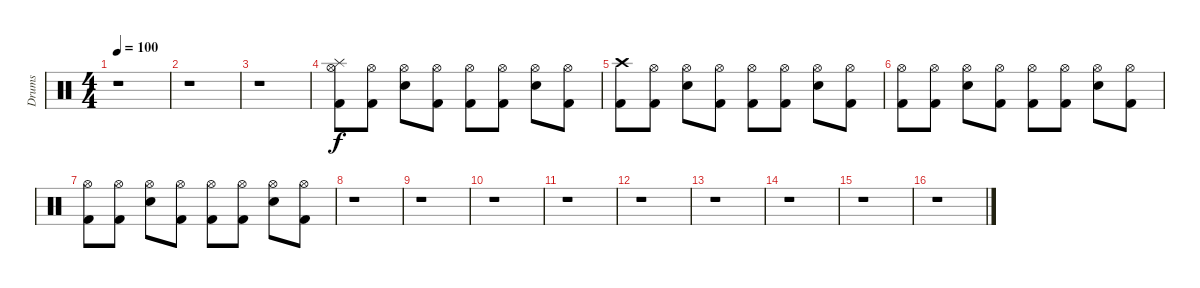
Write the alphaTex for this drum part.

\track ("Drums" "Drums") {instrument percussion}
\staff {score}
\articulation defaults
\ts (4 4)
\tempo 100
\clef neutral
\ks c
r.1{dy f} |
r.1 |
r.1 |
("Kick (hit) 2" "Splash (hit)" "Hi-Hat (open)").8 ("Kick (hit) 2" "Hi-Hat (open)").8 ("Electric Snare (hit)" "Hi-Hat (open)").8 ("Kick (hit) 2" "Hi-Hat (open)").8 ("Kick (hit) 2" "Hi-Hat (open)").8 ("Kick (hit) 2" "Hi-Hat (open)").8 ("Electric Snare (hit)" "Hi-Hat (open)").8 ("Kick (hit) 2" "Hi-Hat (open)").8 |
("Kick (hit) 2" "Crash high (hit)").8 ("Kick (hit) 2" "Hi-Hat (open)").8 ("Electric Snare (hit)" "Hi-Hat (open)").8 ("Kick (hit) 2" "Hi-Hat (open)").8 ("Kick (hit) 2" "Hi-Hat (open)").8 ("Kick (hit) 2" "Hi-Hat (open)").8 ("Electric Snare (hit)" "Hi-Hat (open)").8 ("Kick (hit) 2" "Hi-Hat (open)").8 |
("Kick (hit) 2" "Hi-Hat (open)").8 ("Kick (hit) 2" "Hi-Hat (open)").8 ("Electric Snare (hit)" "Hi-Hat (open)").8 ("Kick (hit) 2" "Hi-Hat (open)").8 ("Kick (hit) 2" "Hi-Hat (open)").8 ("Kick (hit) 2" "Hi-Hat (open)").8 ("Electric Snare (hit)" "Hi-Hat (open)").8 ("Kick (hit) 2" "Hi-Hat (open)").8 |
("Kick (hit) 2" "Hi-Hat (open)").8 ("Kick (hit) 2" "Hi-Hat (open)").8 ("Electric Snare (hit)" "Hi-Hat (open)").8 ("Kick (hit) 2" "Hi-Hat (open)").8 ("Kick (hit) 2" "Hi-Hat (open)").8 ("Kick (hit) 2" "Hi-Hat (open)").8 ("Electric Snare (hit)" "Hi-Hat (open)").8 ("Kick (hit) 2" "Hi-Hat (open)").8 |
r.1 |
r.1 |
r.1 |
r.1 |
r.1 |
r.1 |
r.1 |
r.1 |
r.1
